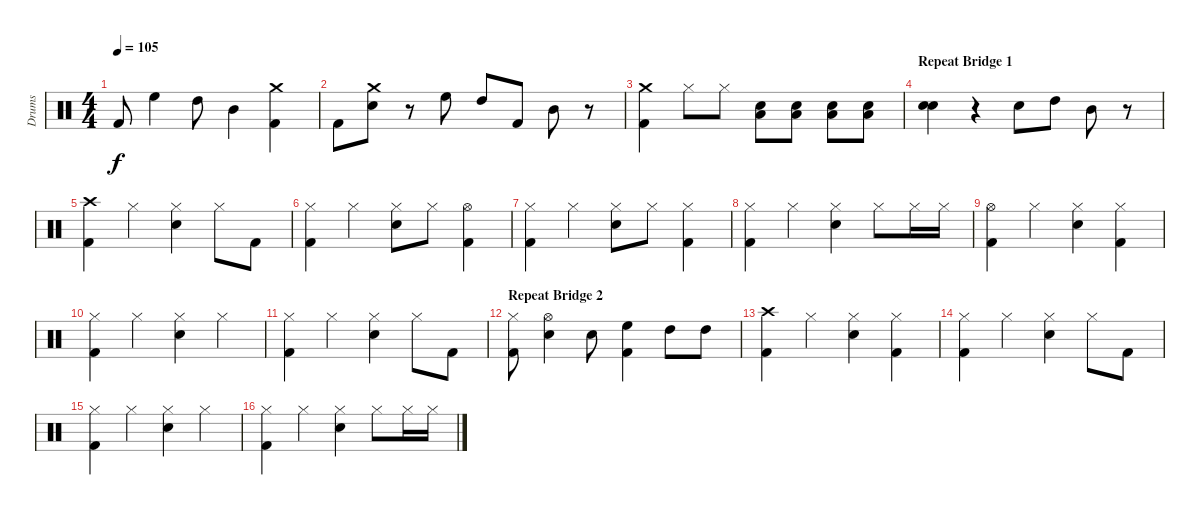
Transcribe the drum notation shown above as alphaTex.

\track ("Drums" "Drums") {instrument percussion}
\staff {score}
\articulation defaults
\ts (4 4)
\tempo 105
\clef neutral
\ks c "Kick (hit) 2".8{dy f} "High Floor Tom (hit)".4 "High Tom (hit)".8 "Mid Tom (hit)".4
("Crash medium (hit)" "Kick (hit) 2").4 |
"Kick (hit) 2".8 ("Crash medium (hit)" "Snare (hit) 2").8 r.8 "High Floor Tom (hit)".8 "High Tom (hit)".8 "Kick (hit) 2".8 "Mid Tom (hit)".8 r.8 |
("Crash medium (hit)" "Kick (hit) 2").4 "Hi-Hat (closed)".8 "Hi-Hat (closed)".8 ("Low Floor Tom (hit)" "Snare (hit) 2").8 ("Low Floor Tom (hit)" "Snare (hit) 2").8 ("Low Floor Tom (hit)" "Snare (hit) 2").8 ("Low Floor Tom (hit)" "Snare (hit) 2").8 |
\section ("" "Repeat Bridge 1")
("Snare (hit) 2" "Snare (hit) 2").4 r.4 "Snare (hit) 2".8 "High Tom (hit)".8 "Mid Tom (hit)".8 r.8 |
("Crash high (hit)" "Kick (hit) 2").4 "Hi-Hat (closed)".4 ("Hi-Hat (closed)" "Snare (hit) 2").4 "Hi-Hat (closed)".8 "Kick (hit) 2".8 |
("Hi-Hat (closed)" "Kick (hit) 2").4 "Hi-Hat (closed)".4 ("Hi-Hat (closed)" "Snare (hit) 2").8 "Hi-Hat (closed)".8 ("Hi-Hat (open)" "Kick (hit) 2").4 |
("Hi-Hat (closed)" "Kick (hit) 2").4 "Hi-Hat (closed)".4 ("Hi-Hat (closed)" "Snare (hit) 2").8 "Hi-Hat (closed)".8 ("Hi-Hat (closed)" "Kick (hit) 2").4 |
("Hi-Hat (closed)" "Kick (hit) 2").4 "Hi-Hat (closed)".4 ("Hi-Hat (closed)" "Snare (hit) 2").4 "Hi-Hat (closed)".8 "Hi-Hat (closed)".16 "Hi-Hat (closed)".16 |
("Hi-Hat (open)" "Kick (hit) 2").4 "Hi-Hat (closed)".4 ("Hi-Hat (closed)" "Snare (hit) 2").4 ("Hi-Hat (closed)" "Kick (hit) 2").4 |
("Hi-Hat (closed)" "Kick (hit) 2").4 "Hi-Hat (closed)".4 ("Hi-Hat (closed)" "Snare (hit) 2").4 "Hi-Hat (closed)".4 |
("Hi-Hat (closed)" "Kick (hit) 2").4 "Hi-Hat (closed)".4 ("Hi-Hat (closed)" "Snare (hit) 2").4 "Hi-Hat (closed)".8 "Kick (hit) 2".8 |
\section ("" "Repeat Bridge 2")
("Hi-Hat (closed)" "Kick (hit) 2").8 ("Hi-Hat (open)" "Snare (hit) 2").4 "Snare (hit) 2".8 ("High Floor Tom (hit)" "Kick (hit) 2").4 "High Tom (hit)".8 "High Tom (hit)".8 |
("Crash high (hit)" "Kick (hit) 2").4 "Hi-Hat (closed)".4 ("Hi-Hat (closed)" "Snare (hit) 2").4 ("Hi-Hat (closed)" "Kick (hit) 2").4 |
("Hi-Hat (closed)" "Kick (hit) 2").4 "Hi-Hat (closed)".4 ("Hi-Hat (closed)" "Snare (hit) 2").4 "Hi-Hat (closed)".8 "Kick (hit) 2".8 |
("Hi-Hat (closed)" "Kick (hit) 2").4 "Hi-Hat (closed)".4 ("Hi-Hat (closed)" "Snare (hit) 2").4 "Hi-Hat (closed)".4 |
("Hi-Hat (closed)" "Kick (hit) 2").4 "Hi-Hat (closed)".4 ("Hi-Hat (closed)" "Snare (hit) 2").4 "Hi-Hat (closed)".8 "Hi-Hat (closed)".16 "Hi-Hat (closed)".16
